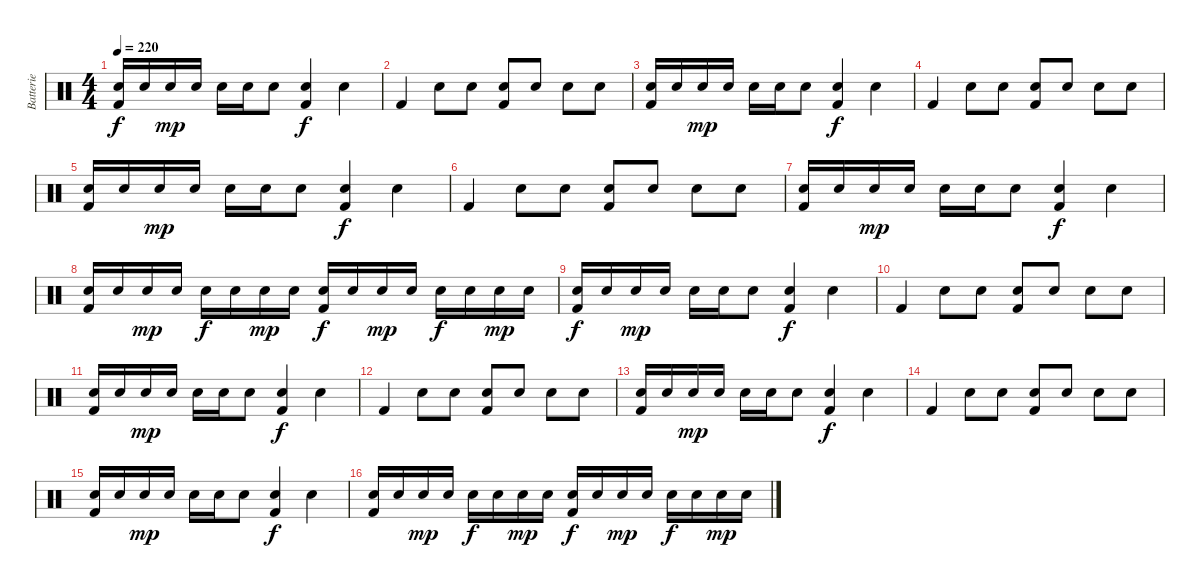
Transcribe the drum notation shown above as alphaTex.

\track ("Batterie" "Batterie") {instrument percussion}
\staff {score}
\articulation defaults
\ts (4 4)
\tempo 220
\clef neutral
\ks c
("Electric Snare (hit)" "Kick (hit) 2").16{dy f} "Electric Snare (hit)".16 "Electric Snare (hit)".16{dy mp} "Electric Snare (hit)".16 "Electric Snare (hit)".16 "Electric Snare (hit)".16 "Electric Snare (hit)".8 ("Electric Snare (hit)" "Kick (hit) 2").4{dy f} "Electric Snare (hit)".4 |
"Kick (hit) 2".4 "Electric Snare (hit)".8 "Electric Snare (hit)".8 ("Electric Snare (hit)" "Kick (hit) 2").8 "Electric Snare (hit)".8 "Electric Snare (hit)".8 "Electric Snare (hit)".8 |
("Electric Snare (hit)" "Kick (hit) 2").16 "Electric Snare (hit)".16 "Electric Snare (hit)".16{dy mp} "Electric Snare (hit)".16 "Electric Snare (hit)".16 "Electric Snare (hit)".16 "Electric Snare (hit)".8 ("Electric Snare (hit)" "Kick (hit) 2").4{dy f} "Electric Snare (hit)".4 |
"Kick (hit) 2".4 "Electric Snare (hit)".8 "Electric Snare (hit)".8 ("Electric Snare (hit)" "Kick (hit) 2").8 "Electric Snare (hit)".8 "Electric Snare (hit)".8 "Electric Snare (hit)".8 |
("Electric Snare (hit)" "Kick (hit) 2").16 "Electric Snare (hit)".16 "Electric Snare (hit)".16{dy mp} "Electric Snare (hit)".16 "Electric Snare (hit)".16 "Electric Snare (hit)".16 "Electric Snare (hit)".8 ("Electric Snare (hit)" "Kick (hit) 2").4{dy f} "Electric Snare (hit)".4 |
"Kick (hit) 2".4 "Electric Snare (hit)".8 "Electric Snare (hit)".8 ("Electric Snare (hit)" "Kick (hit) 2").8 "Electric Snare (hit)".8 "Electric Snare (hit)".8 "Electric Snare (hit)".8 |
("Electric Snare (hit)" "Kick (hit) 2").16 "Electric Snare (hit)".16 "Electric Snare (hit)".16{dy mp} "Electric Snare (hit)".16 "Electric Snare (hit)".16 "Electric Snare (hit)".16 "Electric Snare (hit)".8 ("Electric Snare (hit)" "Kick (hit) 2").4{dy f} "Electric Snare (hit)".4 |
("Electric Snare (hit)" "Kick (hit) 2").16 "Electric Snare (hit)".16 "Electric Snare (hit)".16{dy mp} "Electric Snare (hit)".16 "Electric Snare (hit)".16{dy f} "Electric Snare (hit)".16 "Electric Snare (hit)".16{dy mp} "Electric Snare (hit)".16 ("Electric Snare (hit)" "Kick (hit) 2").16{dy f} "Electric Snare (hit)".16 "Electric Snare (hit)".16{dy mp} "Electric Snare (hit)".16 "Electric Snare (hit)".16{dy f} "Electric Snare (hit)".16 "Electric Snare (hit)".16{dy mp} "Electric Snare (hit)".16 |
("Electric Snare (hit)" "Kick (hit) 2").16{dy f} "Electric Snare (hit)".16 "Electric Snare (hit)".16{dy mp} "Electric Snare (hit)".16 "Electric Snare (hit)".16 "Electric Snare (hit)".16 "Electric Snare (hit)".8 ("Electric Snare (hit)" "Kick (hit) 2").4{dy f} "Electric Snare (hit)".4 |
"Kick (hit) 2".4 "Electric Snare (hit)".8 "Electric Snare (hit)".8 ("Electric Snare (hit)" "Kick (hit) 2").8 "Electric Snare (hit)".8 "Electric Snare (hit)".8 "Electric Snare (hit)".8 |
("Electric Snare (hit)" "Kick (hit) 2").16 "Electric Snare (hit)".16 "Electric Snare (hit)".16{dy mp} "Electric Snare (hit)".16 "Electric Snare (hit)".16 "Electric Snare (hit)".16 "Electric Snare (hit)".8 ("Electric Snare (hit)" "Kick (hit) 2").4{dy f} "Electric Snare (hit)".4 |
"Kick (hit) 2".4 "Electric Snare (hit)".8 "Electric Snare (hit)".8 ("Electric Snare (hit)" "Kick (hit) 2").8 "Electric Snare (hit)".8 "Electric Snare (hit)".8 "Electric Snare (hit)".8 |
("Electric Snare (hit)" "Kick (hit) 2").16 "Electric Snare (hit)".16 "Electric Snare (hit)".16{dy mp} "Electric Snare (hit)".16 "Electric Snare (hit)".16 "Electric Snare (hit)".16 "Electric Snare (hit)".8 ("Electric Snare (hit)" "Kick (hit) 2").4{dy f} "Electric Snare (hit)".4 |
"Kick (hit) 2".4 "Electric Snare (hit)".8 "Electric Snare (hit)".8 ("Electric Snare (hit)" "Kick (hit) 2").8 "Electric Snare (hit)".8 "Electric Snare (hit)".8 "Electric Snare (hit)".8 |
("Electric Snare (hit)" "Kick (hit) 2").16 "Electric Snare (hit)".16 "Electric Snare (hit)".16{dy mp} "Electric Snare (hit)".16 "Electric Snare (hit)".16 "Electric Snare (hit)".16 "Electric Snare (hit)".8 ("Electric Snare (hit)" "Kick (hit) 2").4{dy f} "Electric Snare (hit)".4 |
("Electric Snare (hit)" "Kick (hit) 2").16 "Electric Snare (hit)".16 "Electric Snare (hit)".16{dy mp} "Electric Snare (hit)".16 "Electric Snare (hit)".16{dy f} "Electric Snare (hit)".16 "Electric Snare (hit)".16{dy mp} "Electric Snare (hit)".16 ("Electric Snare (hit)" "Kick (hit) 2").16{dy f} "Electric Snare (hit)".16 "Electric Snare (hit)".16{dy mp} "Electric Snare (hit)".16 "Electric Snare (hit)".16{dy f} "Electric Snare (hit)".16 "Electric Snare (hit)".16{dy mp} "Electric Snare (hit)".16
